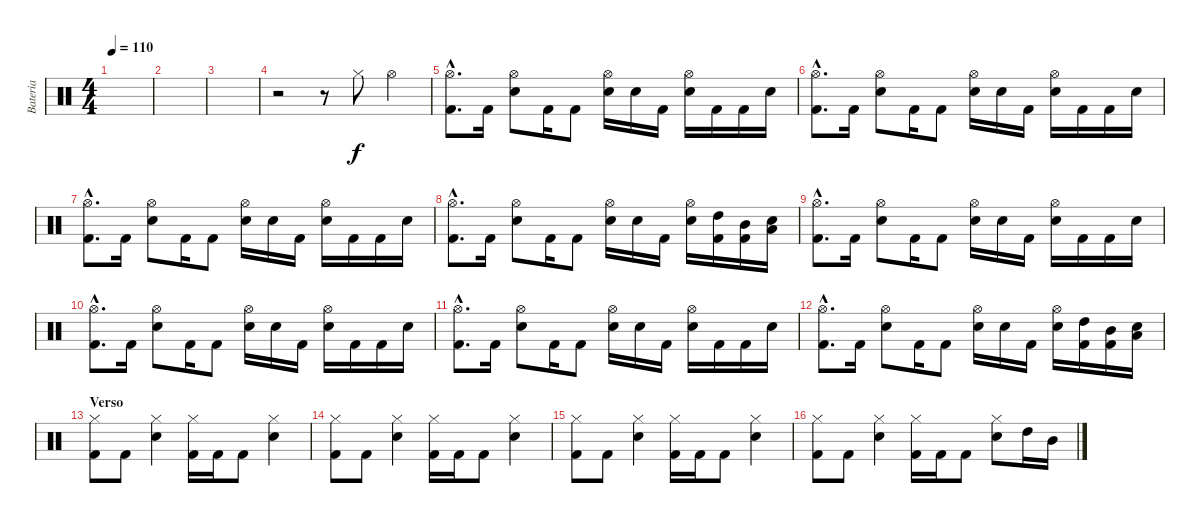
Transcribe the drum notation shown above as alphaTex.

\track ("Bateria" "Bateria") {instrument percussion}
\staff {score}
\articulation defaults
\ts (4 4)
\tempo 110
\clef neutral
\ks c
|
|
|
r.2 r.8 "Hi-Hat (closed)".8 "Hi-Hat (open)".4 |
("Kick (hit) 2"{hac} "Hi-Hat (open)"{hac}).8{d} "Kick (hit) 2".16 ("Electric Snare (hit)" "Hi-Hat (open)").8 "Kick (hit) 2".16 "Kick (hit) 2".8 ("Electric Snare (hit)" "Hi-Hat (open)").16 "Electric Snare (hit)".16 "Kick (hit) 2".16 ("Electric Snare (hit)" "Hi-Hat (open)").16 "Kick (hit) 2".16 "Kick (hit) 2".16 "Electric Snare (hit)".16 |
("Kick (hit) 2"{hac} "Hi-Hat (open)"{hac}).8{d} "Kick (hit) 2".16 ("Electric Snare (hit)" "Hi-Hat (open)").8 "Kick (hit) 2".16 "Kick (hit) 2".8 ("Electric Snare (hit)" "Hi-Hat (open)").16 "Electric Snare (hit)".16 "Kick (hit) 2".16 ("Electric Snare (hit)" "Hi-Hat (open)").16 "Kick (hit) 2".16 "Kick (hit) 2".16 "Electric Snare (hit)".16 |
("Kick (hit) 2"{hac} "Hi-Hat (open)"{hac}).8{d} "Kick (hit) 2".16 ("Electric Snare (hit)" "Hi-Hat (open)").8 "Kick (hit) 2".16 "Kick (hit) 2".8 ("Electric Snare (hit)" "Hi-Hat (open)").16 "Electric Snare (hit)".16 "Kick (hit) 2".16 ("Electric Snare (hit)" "Hi-Hat (open)").16 "Kick (hit) 2".16 "Kick (hit) 2".16 "Electric Snare (hit)".16 |
("Kick (hit) 2"{hac} "Hi-Hat (open)"{hac}).8{d} "Kick (hit) 2".16 ("Electric Snare (hit)" "Hi-Hat (open)").8 "Kick (hit) 2".16 "Kick (hit) 2".8 ("Electric Snare (hit)" "Hi-Hat (open)").16 "Electric Snare (hit)".16 "Kick (hit) 2".16 ("Electric Snare (hit)" "Hi-Hat (open)").16 ("Kick (hit) 2" "High Tom (hit)").16 ("Kick (hit) 2" "Mid Tom (hit)").16 ("Electric Snare (hit)" "Low Tom (hit)").16 |
("Kick (hit) 2"{hac} "Hi-Hat (open)"{hac}).8{d} "Kick (hit) 2".16 ("Electric Snare (hit)" "Hi-Hat (open)").8 "Kick (hit) 2".16 "Kick (hit) 2".8 ("Electric Snare (hit)" "Hi-Hat (open)").16 "Electric Snare (hit)".16 "Kick (hit) 2".16 ("Electric Snare (hit)" "Hi-Hat (open)").16 "Kick (hit) 2".16 "Kick (hit) 2".16 "Electric Snare (hit)".16 |
("Kick (hit) 2"{hac} "Hi-Hat (open)"{hac}).8{d} "Kick (hit) 2".16 ("Electric Snare (hit)" "Hi-Hat (open)").8 "Kick (hit) 2".16 "Kick (hit) 2".8 ("Electric Snare (hit)" "Hi-Hat (open)").16 "Electric Snare (hit)".16 "Kick (hit) 2".16 ("Electric Snare (hit)" "Hi-Hat (open)").16 "Kick (hit) 2".16 "Kick (hit) 2".16 "Electric Snare (hit)".16 |
("Kick (hit) 2"{hac} "Hi-Hat (open)"{hac}).8{d} "Kick (hit) 2".16 ("Electric Snare (hit)" "Hi-Hat (open)").8 "Kick (hit) 2".16 "Kick (hit) 2".8 ("Electric Snare (hit)" "Hi-Hat (open)").16 "Electric Snare (hit)".16 "Kick (hit) 2".16 ("Electric Snare (hit)" "Hi-Hat (open)").16 "Kick (hit) 2".16 "Kick (hit) 2".16 "Electric Snare (hit)".16 |
("Kick (hit) 2"{hac} "Hi-Hat (open)"{hac}).8{d} "Kick (hit) 2".16 ("Electric Snare (hit)" "Hi-Hat (open)").8 "Kick (hit) 2".16 "Kick (hit) 2".8 ("Electric Snare (hit)" "Hi-Hat (open)").16 "Electric Snare (hit)".16 "Kick (hit) 2".16 ("Electric Snare (hit)" "Hi-Hat (open)").16 ("Kick (hit) 2" "High Tom (hit)").16 ("Kick (hit) 2" "Mid Tom (hit)").16 ("Electric Snare (hit)" "Low Tom (hit)").16 |
\section ("" "Verso")
("Kick (hit) 2" "Hi-Hat (closed)").8 "Kick (hit) 2".8 ("Electric Snare (hit)" "Hi-Hat (closed)").4 ("Kick (hit) 2" "Hi-Hat (closed)").16 "Kick (hit) 2".16 "Kick (hit) 2".8 ("Electric Snare (hit)" "Hi-Hat (closed)").4 |
("Kick (hit) 2" "Hi-Hat (closed)").8 "Kick (hit) 2".8 ("Electric Snare (hit)" "Hi-Hat (closed)").4 ("Kick (hit) 2" "Hi-Hat (closed)").16 "Kick (hit) 2".16 "Kick (hit) 2".8 ("Electric Snare (hit)" "Hi-Hat (closed)").4 |
("Kick (hit) 2" "Hi-Hat (closed)").8 "Kick (hit) 2".8 ("Electric Snare (hit)" "Hi-Hat (closed)").4 ("Kick (hit) 2" "Hi-Hat (closed)").16 "Kick (hit) 2".16 "Kick (hit) 2".8 ("Electric Snare (hit)" "Hi-Hat (closed)").4 |
("Kick (hit) 2" "Hi-Hat (closed)").8 "Kick (hit) 2".8 ("Electric Snare (hit)" "Hi-Hat (closed)").4 ("Kick (hit) 2" "Hi-Hat (closed)").16 "Kick (hit) 2".16 "Kick (hit) 2".8 ("Electric Snare (hit)" "Hi-Hat (closed)").8 "High Tom (hit)".16 "Mid Tom (hit)".16
